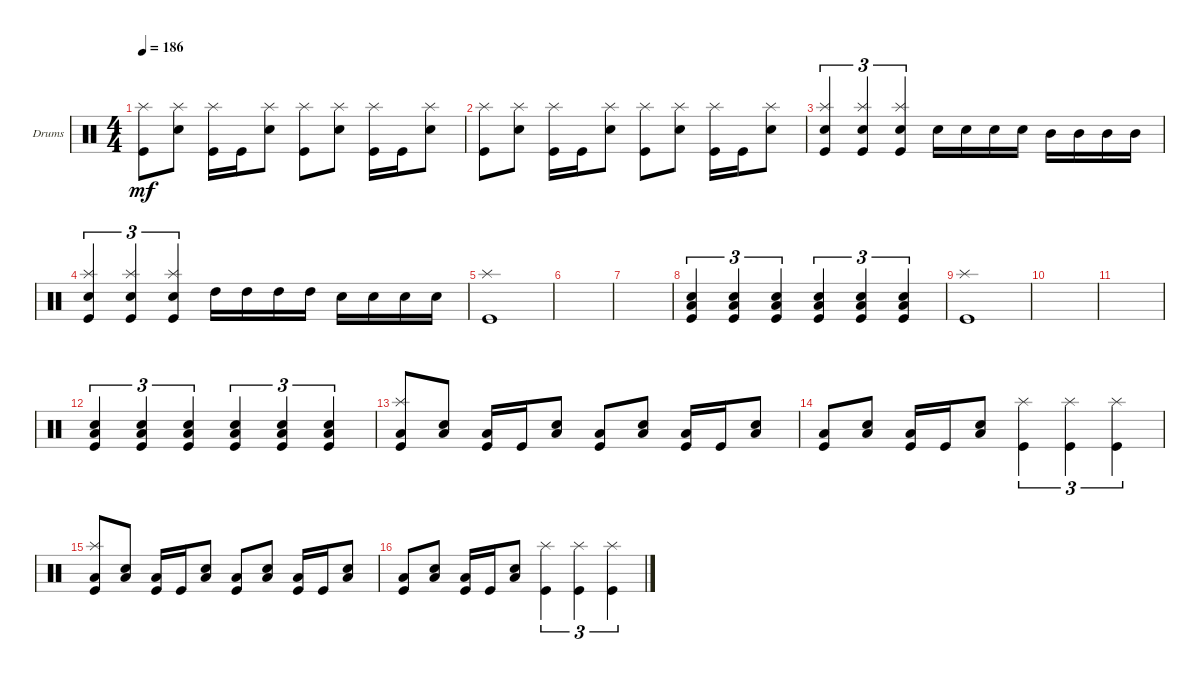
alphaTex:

\defaultSystemsLayout 4
\bracketExtendMode groupsimilarinstruments
\firstSystemTrackNameOrientation horizontal
\otherSystemsTrackNameOrientation horizontal
\track ("Drumkit" "Drums") {instrument percussion}
\staff {score}
\articulation defaults
\ts (4 4)
\tempo 186
\clef neutral
\ks c
("Kick (hit)" "Splash (hit)").8{dy mf} ("Snare (hit) 2" "Splash (hit)").8 ("Kick (hit)" "Splash (hit)").16 "Kick (hit)".16 ("Snare (hit) 2" "Splash (hit)").8 ("Kick (hit)" "Splash (hit)").8 ("Snare (hit) 2" "Splash (hit)").8 ("Kick (hit)" "Splash (hit)").16 "Kick (hit)".16 ("Snare (hit) 2" "Splash (hit)").8 |
("Kick (hit)" "Splash (hit)").8 ("Snare (hit) 2" "Splash (hit)").8 ("Kick (hit)" "Splash (hit)").16 "Kick (hit)".16 ("Snare (hit) 2" "Splash (hit)").8 ("Kick (hit)" "Splash (hit)").8 ("Snare (hit) 2" "Splash (hit)").8 ("Kick (hit)" "Splash (hit)").16 "Kick (hit)".16 ("Snare (hit) 2" "Splash (hit)").8 |
("Kick (hit)" "Splash (hit)" "Snare (hit) 2").4{tu (3 2)} ("Kick (hit)" "Splash (hit)" "Snare (hit) 2").4{tu (3 2)} ("Kick (hit)" "Splash (hit)" "Snare (hit) 2").4{tu (3 2)} "Snare (hit) 2".16 "Snare (hit) 2".16 "Snare (hit) 2".16 "Snare (hit) 2".16 "Mid Tom (hit)".16 "Mid Tom (hit)".16 "Mid Tom (hit)".16 "Mid Tom (hit)".16 |
("Kick (hit)" "Splash (hit)" "Snare (hit) 2").4{tu (3 2)} ("Kick (hit)" "Splash (hit)" "Snare (hit) 2").4{tu (3 2)} ("Kick (hit)" "Splash (hit)" "Snare (hit) 2").4{tu (3 2)} "High Tom (hit)".16 "High Tom (hit)".16 "High Tom (hit)".16 "High Tom (hit)".16 "Snare (hit) 2".16 "Snare (hit) 2".16 "Snare (hit) 2".16 "Snare (hit) 2".16 |
("Splash (hit)" "Kick (hit)").1 |
|
|
("Kick (hit)" "Low Tom (hit)" "Snare (hit) 2").4{tu (3 2)} ("Kick (hit)" "Low Tom (hit)" "Snare (hit) 2").4{tu (3 2)} ("Kick (hit)" "Low Tom (hit)" "Snare (hit) 2").4{tu (3 2)} ("Kick (hit)" "Low Tom (hit)" "Snare (hit) 2").4{tu (3 2)} ("Kick (hit)" "Low Tom (hit)" "Snare (hit) 2").4{tu (3 2)} ("Kick (hit)" "Low Tom (hit)" "Snare (hit) 2").4{tu (3 2)} |
("Splash (hit)" "Kick (hit)").1 |
|
|
("Kick (hit)" "Low Tom (hit)" "Snare (hit) 2").4{tu (3 2)} ("Kick (hit)" "Low Tom (hit)" "Snare (hit) 2").4{tu (3 2)} ("Kick (hit)" "Low Tom (hit)" "Snare (hit) 2").4{tu (3 2)} ("Kick (hit)" "Low Tom (hit)" "Snare (hit) 2").4{tu (3 2)} ("Kick (hit)" "Low Tom (hit)" "Snare (hit) 2").4{tu (3 2)} ("Kick (hit)" "Low Tom (hit)" "Snare (hit) 2").4{tu (3 2)} |
("Kick (hit)" "Low Tom (hit)" "Splash (hit)").8 ("Snare (hit) 2" "Low Tom (hit)").8 ("Kick (hit)" "Low Tom (hit)").16 "Kick (hit)".16 ("Snare (hit) 2" "Low Tom (hit)").8 ("Kick (hit)" "Low Tom (hit)").8 ("Snare (hit) 2" "Low Tom (hit)").8 ("Kick (hit)" "Low Tom (hit)").16 "Kick (hit)".16 ("Snare (hit) 2" "Low Tom (hit)").8 |
("Kick (hit)" "Low Tom (hit)").8 ("Snare (hit) 2" "Low Tom (hit)").8 ("Kick (hit)" "Low Tom (hit)").16 "Kick (hit)".16 ("Snare (hit) 2" "Low Tom (hit)").8 ("Kick (hit)" "Splash (hit)").4{tu (3 2)} ("Kick (hit)" "Splash (hit)").4{tu (3 2)} ("Kick (hit)" "Splash (hit)").4{tu (3 2)} |
("Kick (hit)" "Low Tom (hit)" "Splash (hit)").8 ("Snare (hit) 2" "Low Tom (hit)").8 ("Kick (hit)" "Low Tom (hit)").16 "Kick (hit)".16 ("Snare (hit) 2" "Low Tom (hit)").8 ("Kick (hit)" "Low Tom (hit)").8 ("Snare (hit) 2" "Low Tom (hit)").8 ("Kick (hit)" "Low Tom (hit)").16 "Kick (hit)".16 ("Snare (hit) 2" "Low Tom (hit)").8 |
("Kick (hit)" "Low Tom (hit)").8 ("Snare (hit) 2" "Low Tom (hit)").8 ("Kick (hit)" "Low Tom (hit)").16 "Kick (hit)".16 ("Snare (hit) 2" "Low Tom (hit)").8 ("Kick (hit)" "Splash (hit)").4{tu (3 2)} ("Kick (hit)" "Splash (hit)").4{tu (3 2)} ("Kick (hit)" "Splash (hit)").4{tu (3 2)}
